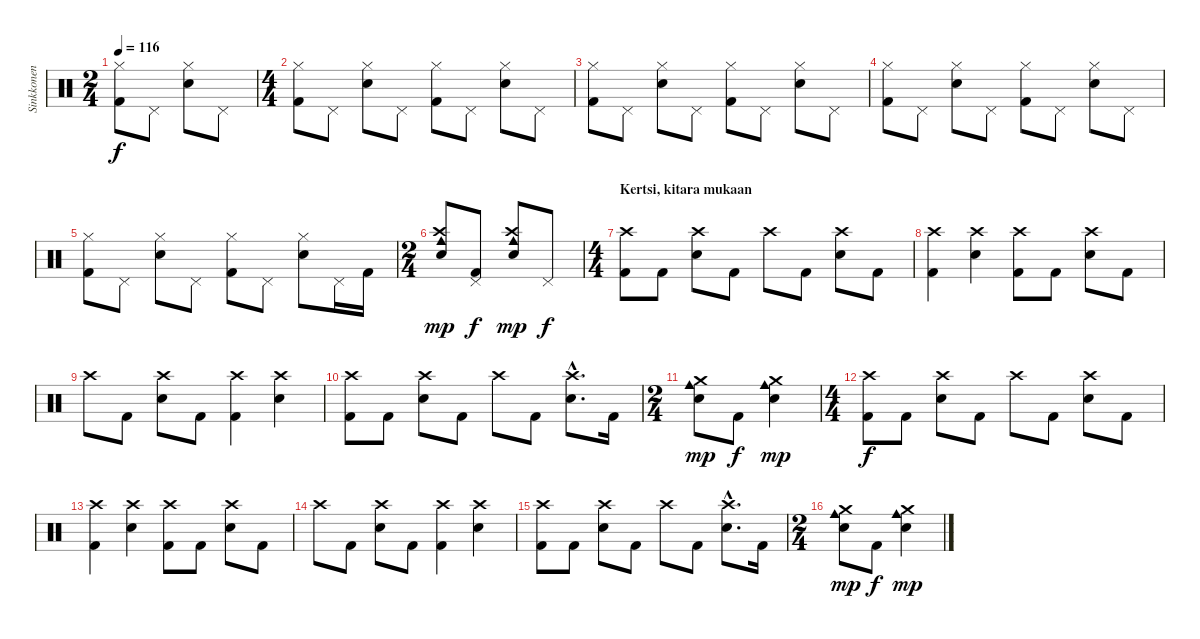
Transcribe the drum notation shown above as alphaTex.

\track ("Sinkkonen" "Sinkkonen") {instrument percussion}
\staff {score}
\articulation defaults
\ts (2 4)
\tempo 116
\clef neutral
\ks c
("Kick (hit) 2" "Hi-Hat (closed)").8{dy f} "Pedal Hi-Hat (hit)".8 ("Hi-Hat (closed)" "Snare (hit) 2").8 "Pedal Hi-Hat (hit)".8 |
\ts (4 4)
("Kick (hit) 2" "Hi-Hat (closed)").8 "Pedal Hi-Hat (hit)".8 ("Hi-Hat (closed)" "Snare (hit) 2").8 "Pedal Hi-Hat (hit)".8 ("Kick (hit) 2" "Hi-Hat (closed)").8 "Pedal Hi-Hat (hit)".8 ("Hi-Hat (closed)" "Snare (hit) 2").8 "Pedal Hi-Hat (hit)".8 |
("Kick (hit) 2" "Hi-Hat (closed)").8 "Pedal Hi-Hat (hit)".8 ("Hi-Hat (closed)" "Snare (hit) 2").8 "Pedal Hi-Hat (hit)".8 ("Kick (hit) 2" "Hi-Hat (closed)").8 "Pedal Hi-Hat (hit)".8 ("Hi-Hat (closed)" "Snare (hit) 2").8 "Pedal Hi-Hat (hit)".8 |
("Kick (hit) 2" "Hi-Hat (closed)").8 "Pedal Hi-Hat (hit)".8 ("Hi-Hat (closed)" "Snare (hit) 2").8 "Pedal Hi-Hat (hit)".8 ("Kick (hit) 2" "Hi-Hat (closed)").8 "Pedal Hi-Hat (hit)".8 ("Hi-Hat (closed)" "Snare (hit) 2").8 "Pedal Hi-Hat (hit)".8 |
("Kick (hit) 2" "Hi-Hat (closed)").8 "Pedal Hi-Hat (hit)".8 ("Hi-Hat (closed)" "Snare (hit) 2").8 "Pedal Hi-Hat (hit)".8 ("Kick (hit) 2" "Hi-Hat (closed)").8 "Pedal Hi-Hat (hit)".8 ("Hi-Hat (closed)" "Snare (hit) 2").8 "Pedal Hi-Hat (hit)".16 "Kick (hit) 2".16 |
\ts (2 4)
("Crash high (hit)" "Snare (hit) 2" "Cowbell medium (hit)").8{dy mp} ("Kick (hit) 2" "Pedal Hi-Hat (hit)").8{dy f} ("Crash high (hit)" "Snare (hit) 2" "Cowbell medium (hit)").8{dy mp} "Pedal Hi-Hat (hit)".8{dy f} |
\ts (4 4)
\section ("" "Kertsi, kitara mukaan")
("Kick (hit) 2" "Crash high (hit)").8 "Kick (hit) 2".8 ("Crash high (hit)" "Snare (hit) 2").8 "Kick (hit) 2".8 "Crash high (hit)".8 "Kick (hit) 2".8 ("Crash high (hit)" "Snare (hit) 2").8 "Kick (hit) 2".8 |
("Kick (hit) 2" "Crash high (hit)").4 ("Crash high (hit)" "Snare (hit) 2").4 ("Kick (hit) 2" "Crash high (hit)").8 "Kick (hit) 2".8 ("Crash high (hit)" "Snare (hit) 2").8 "Kick (hit) 2".8 |
"Crash high (hit)".8 "Kick (hit) 2".8 ("Crash high (hit)" "Snare (hit) 2").8 "Kick (hit) 2".8 ("Kick (hit) 2" "Crash high (hit)").4 ("Crash high (hit)" "Snare (hit) 2").4 |
("Kick (hit) 2" "Crash high (hit)").8 "Kick (hit) 2".8 ("Crash high (hit)" "Snare (hit) 2").8 "Kick (hit) 2".8 "Crash high (hit)".8 "Kick (hit) 2".8 ("Crash high (hit)"{hac} "Snare (hit) 2"{hac}).8{d} "Kick (hit) 2".16 |
\ts (2 4)
("Crash medium (hit)" "Snare (hit) 2" "Cowbell medium (hit)").8{dy mp} "Kick (hit) 2".8{dy f} ("Crash medium (hit)" "Snare (hit) 2" "Cowbell medium (hit)").4{dy mp} |
\ts (4 4)
("Kick (hit) 2" "Crash high (hit)").8{dy f} "Kick (hit) 2".8 ("Crash high (hit)" "Snare (hit) 2").8 "Kick (hit) 2".8 "Crash high (hit)".8 "Kick (hit) 2".8 ("Crash high (hit)" "Snare (hit) 2").8 "Kick (hit) 2".8 |
("Kick (hit) 2" "Crash high (hit)").4 ("Crash high (hit)" "Snare (hit) 2").4 ("Kick (hit) 2" "Crash high (hit)").8 "Kick (hit) 2".8 ("Crash high (hit)" "Snare (hit) 2").8 "Kick (hit) 2".8 |
"Crash high (hit)".8 "Kick (hit) 2".8 ("Crash high (hit)" "Snare (hit) 2").8 "Kick (hit) 2".8 ("Kick (hit) 2" "Crash high (hit)").4 ("Crash high (hit)" "Snare (hit) 2").4 |
("Kick (hit) 2" "Crash high (hit)").8 "Kick (hit) 2".8 ("Crash high (hit)" "Snare (hit) 2").8 "Kick (hit) 2".8 "Crash high (hit)".8 "Kick (hit) 2".8 ("Crash high (hit)"{hac} "Snare (hit) 2"{hac}).8{d} "Kick (hit) 2".16 |
\ts (2 4)
("Crash medium (hit)" "Snare (hit) 2" "Cowbell medium (hit)").8{dy mp} "Kick (hit) 2".8{dy f} ("Crash medium (hit)" "Snare (hit) 2" "Cowbell medium (hit)").4{dy mp}
